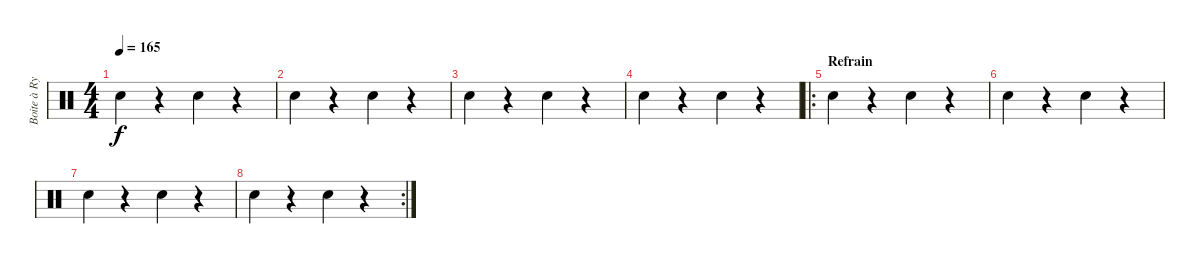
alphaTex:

\track ("Boite à Rythmes" "Boite à Ry") {instrument percussion}
\staff {score}
\articulation defaults
\ts (4 4)
\tempo 165
\clef neutral
\ks c "Snare (hit) 2".4{dy f}
r.4 "Snare (hit) 2".4 r.4 |
"Snare (hit) 2".4 r.4 "Snare (hit) 2".4 r.4 |
"Snare (hit) 2".4 r.4 "Snare (hit) 2".4 r.4 |
"Snare (hit) 2".4 r.4 "Snare (hit) 2".4 r.4 |
\ro
\section ("" "Refrain")
"Snare (hit) 2".4 r.4 "Snare (hit) 2".4 r.4 |
"Snare (hit) 2".4 r.4 "Snare (hit) 2".4 r.4 |
"Snare (hit) 2".4 r.4 "Snare (hit) 2".4 r.4 |
\rc 2 "Snare (hit) 2".4
r.4 "Snare (hit) 2".4 r.4
